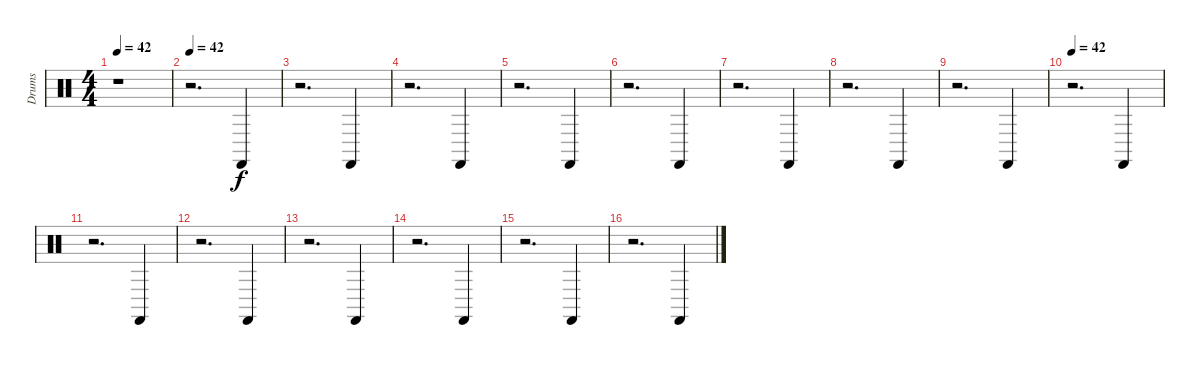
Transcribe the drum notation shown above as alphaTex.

\track ("Drums" "Drums") {instrument percussion}
\staff {score}
\articulation defaults
\ts (4 4)
\tempo 42
\clef neutral
\ks c
r.1{dy f} |
\tempo 42
r.2{d} "Castanets (hit)".4 |
r.2{d} "Castanets (hit)".4 |
r.2{d} "Castanets (hit)".4 |
r.2{d} "Castanets (hit)".4 |
r.2{d} "Castanets (hit)".4 |
r.2{d} "Castanets (hit)".4 |
r.2{d} "Castanets (hit)".4 |
r.2{d} "Castanets (hit)".4 |
\tempo 42
r.2{d} "Castanets (hit)".4 |
r.2{d} "Castanets (hit)".4 |
r.2{d} "Castanets (hit)".4 |
r.2{d} "Castanets (hit)".4 |
r.2{d} "Castanets (hit)".4 |
r.2{d} "Castanets (hit)".4 |
r.2{d} "Castanets (hit)".4
